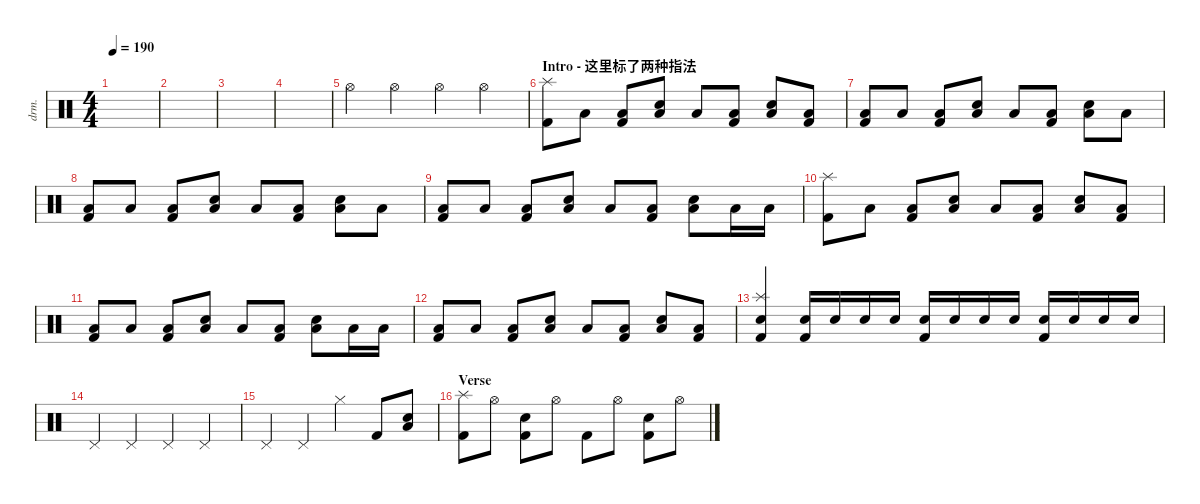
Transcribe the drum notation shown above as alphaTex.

\defaultSystemsLayout 4
\hideDynamics
\bracketExtendMode nobrackets
\track ("伊地知虹夏" "drm.") {instrument percussion}
\staff {score}
\articulation defaults
\ts (4 4)
\tempo 190
\clef neutral
\ks c
|
|
|
|
"Hi-Hat (open)".4 "Hi-Hat (open)".4 "Hi-Hat (open)".4 "Hi-Hat (open)".4 |
\section ("" "Intro - 这里标了两种指法")
("Kick (hit) 2" "Splash (hit)").8 "Low Tom (hit)".8 ("Low Tom (hit)" "Kick (hit) 2").8 ("Low Tom (hit)" "Snare (hit) 2").8 "Low Tom (hit)".8 ("Low Tom (hit)" "Kick (hit) 2").8 ("Low Tom (hit)" "Snare (hit) 2").8 ("Low Tom (hit)" "Kick (hit) 2").8 |
("Kick (hit) 2" "Low Tom (hit)").8 "Low Tom (hit)".8 ("Low Tom (hit)" "Kick (hit) 2").8 ("Low Tom (hit)" "Snare (hit) 2").8 "Low Tom (hit)".8 ("Low Tom (hit)" "Kick (hit) 2").8 ("Low Tom (hit)" "Snare (hit) 2").8 "Low Tom (hit)".8 |
("Kick (hit) 2" "Low Tom (hit)").8 "Low Tom (hit)".8 ("Low Tom (hit)" "Kick (hit) 2").8 ("Low Tom (hit)" "Snare (hit) 2").8 "Low Tom (hit)".8 ("Low Tom (hit)" "Kick (hit) 2").8 ("Low Tom (hit)" "Snare (hit) 2").8 "Low Tom (hit)".8 |
("Kick (hit) 2" "Low Tom (hit)").8 "Low Tom (hit)".8 ("Low Tom (hit)" "Kick (hit) 2").8 ("Low Tom (hit)" "Snare (hit) 2").8 "Low Tom (hit)".8 ("Low Tom (hit)" "Kick (hit) 2").8 ("Low Tom (hit)" "Snare (hit) 2").8 "Low Tom (hit)".16 "Low Tom (hit)".16 |
("Kick (hit) 2" "Splash (hit)").8 "Low Tom (hit)".8 ("Low Tom (hit)" "Kick (hit) 2").8 ("Low Tom (hit)" "Snare (hit) 2").8 "Low Tom (hit)".8 ("Low Tom (hit)" "Kick (hit) 2").8 ("Low Tom (hit)" "Snare (hit) 2").8 ("Low Tom (hit)" "Kick (hit) 2").8 |
("Kick (hit) 2" "Low Tom (hit)").8 "Low Tom (hit)".8 ("Low Tom (hit)" "Kick (hit) 2").8 ("Low Tom (hit)" "Snare (hit) 2").8 "Low Tom (hit)".8 ("Low Tom (hit)" "Kick (hit) 2").8 ("Low Tom (hit)" "Snare (hit) 2").8 "Low Tom (hit)".16 "Low Tom (hit)".16 |
("Kick (hit) 2" "Low Tom (hit)").8 "Low Tom (hit)".8 ("Low Tom (hit)" "Kick (hit) 2").8 ("Low Tom (hit)" "Snare (hit) 2").8 "Low Tom (hit)".8 ("Low Tom (hit)" "Kick (hit) 2").8 ("Low Tom (hit)" "Snare (hit) 2").8 ("Low Tom (hit)" "Kick (hit) 2").8 |
("Splash (hit)" "Snare (hit) 2" "Kick (hit) 2").4 ("Snare (hit) 2" "Kick (hit) 2").16 "Snare (hit) 2".16 "Snare (hit) 2".16 "Snare (hit) 2".16 ("Snare (hit) 2" "Kick (hit) 2").16 "Snare (hit) 2".16 "Snare (hit) 2".16 "Snare (hit) 2".16 ("Snare (hit) 2" "Kick (hit) 2").16 "Snare (hit) 2".16 "Snare (hit) 2".16 "Snare (hit) 2".16 |
"Pedal Hi-Hat (hit)".4 "Pedal Hi-Hat (hit)".4 "Pedal Hi-Hat (hit)".4 "Pedal Hi-Hat (hit)".4 |
"Pedal Hi-Hat (hit)".4 "Pedal Hi-Hat (hit)".4 "Hi-Hat (closed)".4 "Kick (hit) 2".8 ("Low Tom (hit)" "Snare (hit) 2").8 |
\section ("" "Verse")
("Kick (hit) 2" "Splash (hit)").8 "Hi-Hat (open)".8 ("Snare (hit) 2" "Kick (hit) 2").8 "Hi-Hat (open)".8 "Kick (hit) 2".8 "Hi-Hat (open)".8 ("Kick (hit) 2" "Snare (hit) 2").8 "Hi-Hat (open)".8
